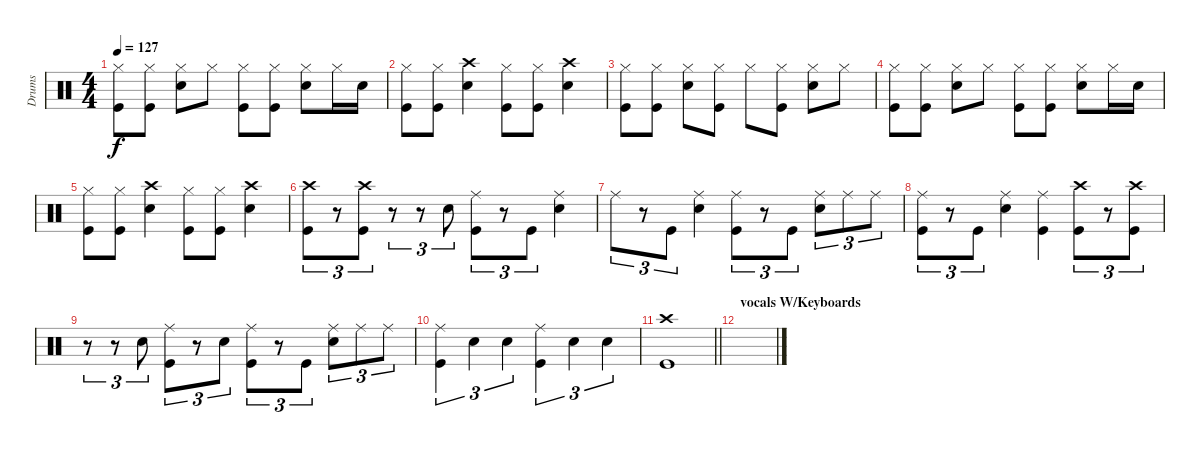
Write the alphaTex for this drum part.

\track ("Drums" "Drums") {instrument percussion}
\staff {score}
\articulation defaults
\ts (4 4)
\tempo 127
\clef neutral
\ks c
("Hi-Hat (closed)" "Kick (hit)").8{dy f} ("Hi-Hat (closed)" "Kick (hit)").8 ("Hi-Hat (closed)" "Snare (hit) 2").8 "Hi-Hat (closed)".8 ("Hi-Hat (closed)" "Kick (hit)").8 ("Hi-Hat (closed)" "Kick (hit)").8 ("Hi-Hat (closed)" "Snare (hit) 2").8 "Hi-Hat (closed)".16 "Snare (hit) 2".16 |
("Hi-Hat (closed)" "Kick (hit)").8 ("Hi-Hat (closed)" "Kick (hit)").8 ("Crash high (hit)" "Snare (hit) 2").4 ("Hi-Hat (closed)" "Kick (hit)").8 ("Hi-Hat (closed)" "Kick (hit)").8 ("Crash high (hit)" "Snare (hit) 2").4 |
("Hi-Hat (closed)" "Kick (hit)").8 ("Hi-Hat (closed)" "Kick (hit)").8 ("Hi-Hat (closed)" "Snare (hit) 2").8 ("Hi-Hat (closed)" "Kick (hit)").8 "Hi-Hat (closed)".8 ("Hi-Hat (closed)" "Kick (hit)").8 ("Hi-Hat (closed)" "Snare (hit) 2").8 "Hi-Hat (closed)".8 |
("Hi-Hat (closed)" "Kick (hit)").8 ("Hi-Hat (closed)" "Kick (hit)").8 ("Hi-Hat (closed)" "Snare (hit) 2").8 "Hi-Hat (closed)".8 ("Hi-Hat (closed)" "Kick (hit)").8 ("Hi-Hat (closed)" "Kick (hit)").8 ("Hi-Hat (closed)" "Snare (hit) 2").8 "Hi-Hat (closed)".16 "Snare (hit) 2".16 |
("Hi-Hat (closed)" "Kick (hit)").8 ("Hi-Hat (closed)" "Kick (hit)").8 ("Crash high (hit)" "Snare (hit) 2").4 ("Hi-Hat (closed)" "Kick (hit)").8 ("Hi-Hat (closed)" "Kick (hit)").8 ("Crash high (hit)" "Snare (hit) 2").4 |
("Crash high (hit)" "Kick (hit)").8{tu (3 2)} r.8{tu (3 2)} ("Kick (hit)" "Crash high (hit)").8{tu (3 2)} r.8{tu (3 2)} r.8{tu (3 2)} "Snare (hit) 2".8{tu (3 2)} ("Ride (middle)" "Kick (hit)").8{tu (3 2)} r.8{tu (3 2)} "Kick (hit)".8{tu (3 2)} ("Snare (hit) 2" "Ride (middle)").4 |
"Ride (middle)".8{tu (3 2)} r.8{tu (3 2)} "Kick (hit)".8{tu (3 2)} ("Snare (hit) 2" "Ride (middle)").4 ("Kick (hit)" "Ride (middle)").8{tu (3 2)} r.8{tu (3 2)} "Kick (hit)".8{tu (3 2)} ("Snare (hit) 2" "Ride (middle)").8{tu (3 2)} "Ride (middle)".8{tu (3 2)} "Ride (middle)".8{tu (3 2)} |
("Ride (middle)" "Kick (hit)").8{tu (3 2)} r.8{tu (3 2)} "Kick (hit)".8{tu (3 2)} ("Ride (middle)" "Snare (hit) 2").4 ("Kick (hit)" "Ride (middle)").4 ("Kick (hit)" "Crash high (hit)").8{tu (3 2)} r.8{tu (3 2)} ("Crash high (hit)" "Kick (hit)").8{tu (3 2)} |
r.8{tu (3 2)} r.8{tu (3 2)} "Snare (hit) 2".8{tu (3 2)} ("Ride (middle)" "Kick (hit)").8{tu (3 2)} r.8{tu (3 2)} "Snare (hit) 2".8{tu (3 2)} ("Kick (hit)" "Ride (middle)").8{tu (3 2)} r.8{tu (3 2)} "Kick (hit)".8{tu (3 2)} ("Snare (hit) 2" "Ride (middle)").8{tu (3 2)} "Ride (middle)".8{tu (3 2)} "Ride (middle)".8{tu (3 2)} |
("Ride (middle)" "Kick (hit)").4{tu (3 2)} "Snare (hit) 2".4{tu (3 2)} "Snare (hit) 2".4{tu (3 2)} ("Kick (hit)" "Ride (middle)").4{tu (3 2)} "Snare (hit) 2".4{tu (3 2)} "Snare (hit) 2".4{tu (3 2)} |
\barLineRight lightlight
("Crash high (hit)" "Kick (hit)").1 |
\section ("" "vocals W/Keyboards")
